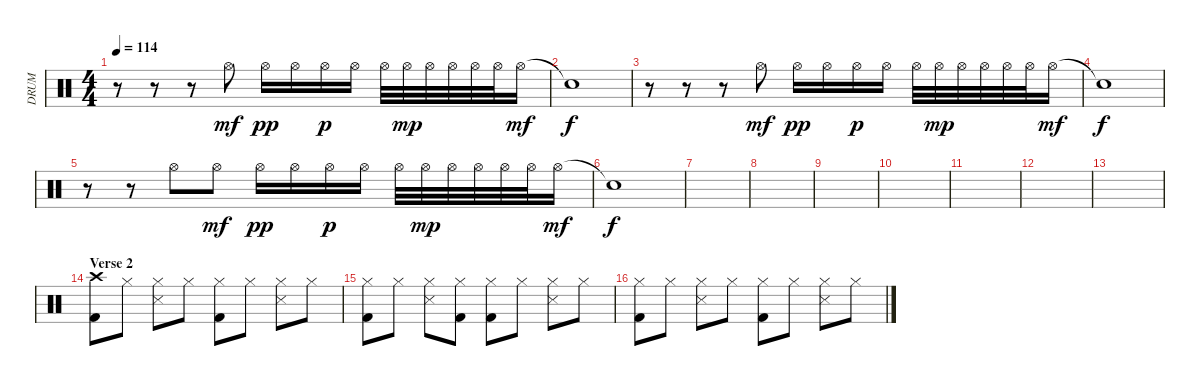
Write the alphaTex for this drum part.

\track ("DRUM" "DRUM") {instrument percussion}
\staff {score}
\articulation defaults
\ts (4 4)
\tempo 114
\clef neutral
\ks c
r.8{dy f} r.8 r.8 "Hi-Hat (open)".8{dy mf} "Hi-Hat (open)".16{dy pp} "Hi-Hat (open)".16 "Hi-Hat (open)".16{dy p} "Hi-Hat (open)".16 "Hi-Hat (open)".32 "Hi-Hat (open)".32{dy mp} "Hi-Hat (open)".32 "Hi-Hat (open)".32 "Hi-Hat (open)".32 "Hi-Hat (open)".32 "Hi-Hat (open)".16{dy mf} |
"Snare (hit)"{t}.1{dy f} |
r.8 r.8 r.8 "Hi-Hat (open)".8{dy mf} "Hi-Hat (open)".16{dy pp} "Hi-Hat (open)".16 "Hi-Hat (open)".16{dy p} "Hi-Hat (open)".16 "Hi-Hat (open)".32 "Hi-Hat (open)".32{dy mp} "Hi-Hat (open)".32 "Hi-Hat (open)".32 "Hi-Hat (open)".32 "Hi-Hat (open)".32 "Hi-Hat (open)".16{dy mf} |
"Snare (hit)"{t}.1{dy f} |
r.8 r.8 "Hi-Hat (open)".8 "Hi-Hat (open)".8{dy mf} "Hi-Hat (open)".16{dy pp} "Hi-Hat (open)".16 "Hi-Hat (open)".16{dy p} "Hi-Hat (open)".16 "Hi-Hat (open)".32 "Hi-Hat (open)".32{dy mp} "Hi-Hat (open)".32 "Hi-Hat (open)".32 "Hi-Hat (open)".32 "Hi-Hat (open)".32 "Hi-Hat (open)".16{dy mf} |
"Snare (hit)"{t}.1{dy f} |
|
|
|
|
|
|
|
\section ("" "Verse 2")
("Crash high (hit)" "Kick (hit) 2").8 "Hi-Hat (closed)".8 ("Hi-Hat (closed)" "Snare (side stick) 3").8 "Hi-Hat (closed)".8 ("Hi-Hat (closed)" "Kick (hit) 2").8 "Hi-Hat (closed)".8 ("Hi-Hat (closed)" "Snare (side stick) 3").8 "Hi-Hat (closed)".8 |
("Hi-Hat (closed)" "Kick (hit) 2").8 "Hi-Hat (closed)".8 ("Hi-Hat (closed)" "Snare (side stick) 3").8 ("Hi-Hat (closed)" "Kick (hit) 2").8 ("Hi-Hat (closed)" "Kick (hit) 2").8 "Hi-Hat (closed)".8 ("Hi-Hat (closed)" "Snare (side stick) 3").8 "Hi-Hat (closed)".8 |
("Hi-Hat (closed)" "Kick (hit) 2").8 "Hi-Hat (closed)".8 ("Hi-Hat (closed)" "Snare (side stick) 3").8 "Hi-Hat (closed)".8 ("Hi-Hat (closed)" "Kick (hit) 2").8 "Hi-Hat (closed)".8 ("Hi-Hat (closed)" "Snare (side stick) 3").8 "Hi-Hat (closed)".8
